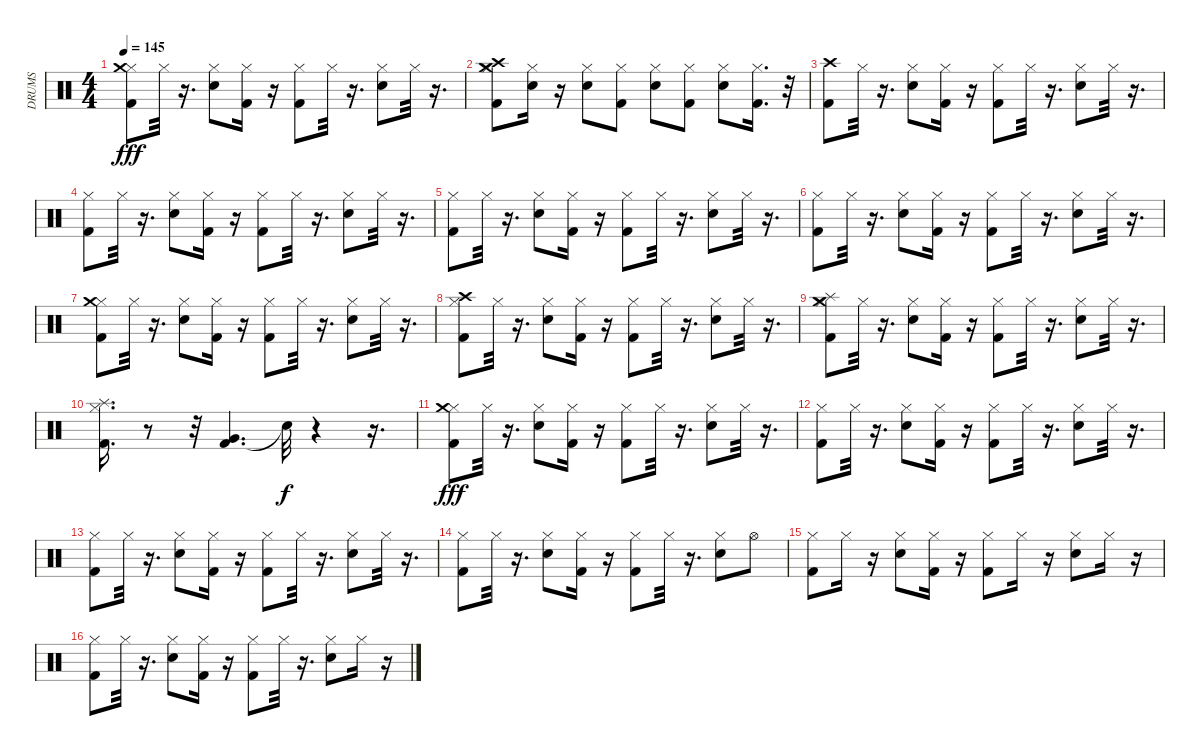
\track ("DRUMS" "DRUMS") {instrument percussion}
\staff {score}
\articulation defaults
\ts (4 4)
\tempo 145
\clef neutral
\ks c
("Kick (hit) 2" "Hi-Hat (closed)" "Crash medium (hit)").8{dy fff} "Hi-Hat (closed)".32 r.16{d} ("Electric Snare (hit)" "Hi-Hat (closed)").8 ("Kick (hit) 2" "Hi-Hat (closed)").16 r.16 ("Kick (hit) 2" "Hi-Hat (closed)").8 "Hi-Hat (closed)".32 r.16{d} ("Electric Snare (hit)" "Hi-Hat (closed)").8 "Hi-Hat (closed)".32 r.16{d} |
("Kick (hit) 2" "Hi-Hat (closed)" "Crash high (hit)" "Crash medium (hit)").8 ("Electric Snare (hit)" "Hi-Hat (closed)").16 r.16 ("Electric Snare (hit)" "Hi-Hat (closed)").8 ("Kick (hit) 2" "Hi-Hat (closed)").8 ("Electric Snare (hit)" "Hi-Hat (closed)").8 ("Kick (hit) 2" "Hi-Hat (closed)").8 ("Electric Snare (hit)" "Hi-Hat (closed)").8 ("Kick (hit) 2" "Hi-Hat (closed)").16{d} r.32 |
("Kick (hit) 2" "Crash high (hit)").8 "Hi-Hat (closed)".32 r.16{d} ("Electric Snare (hit)" "Hi-Hat (closed)").8 ("Kick (hit) 2" "Hi-Hat (closed)").16 r.16 ("Kick (hit) 2" "Hi-Hat (closed)").8 "Hi-Hat (closed)".32 r.16{d} ("Electric Snare (hit)" "Hi-Hat (closed)").8 "Hi-Hat (closed)".32 r.16{d} |
("Kick (hit) 2" "Hi-Hat (closed)").8 "Hi-Hat (closed)".32 r.16{d} ("Electric Snare (hit)" "Hi-Hat (closed)").8 ("Kick (hit) 2" "Hi-Hat (closed)").16 r.16 ("Kick (hit) 2" "Hi-Hat (closed)").8 "Hi-Hat (closed)".32 r.16{d} ("Electric Snare (hit)" "Hi-Hat (closed)").8 "Hi-Hat (closed)".32 r.16{d} |
("Kick (hit) 2" "Hi-Hat (closed)").8 "Hi-Hat (closed)".32 r.16{d} ("Electric Snare (hit)" "Hi-Hat (closed)").8 ("Kick (hit) 2" "Hi-Hat (closed)").16 r.16 ("Kick (hit) 2" "Hi-Hat (closed)").8 "Hi-Hat (closed)".32 r.16{d} ("Electric Snare (hit)" "Hi-Hat (closed)").8 "Hi-Hat (closed)".32 r.16{d} |
("Kick (hit) 2" "Hi-Hat (closed)").8 "Hi-Hat (closed)".32 r.16{d} ("Electric Snare (hit)" "Hi-Hat (closed)").8 ("Kick (hit) 2" "Hi-Hat (closed)").16 r.16 ("Kick (hit) 2" "Hi-Hat (closed)").8 "Hi-Hat (closed)".32 r.16{d} ("Electric Snare (hit)" "Hi-Hat (closed)").8 "Hi-Hat (closed)".32 r.16{d} |
("Kick (hit) 2" "Hi-Hat (closed)" "Crash medium (hit)").8 "Hi-Hat (closed)".32 r.16{d} ("Electric Snare (hit)" "Hi-Hat (closed)").8 ("Kick (hit) 2" "Hi-Hat (closed)").16 r.16 ("Kick (hit) 2" "Hi-Hat (closed)").8 "Hi-Hat (closed)".32 r.16{d} ("Electric Snare (hit)" "Hi-Hat (closed)").8 "Hi-Hat (closed)".32 r.16{d} |
("Kick (hit) 2" "Hi-Hat (closed)" "Crash high (hit)").8 "Hi-Hat (closed)".32 r.16{d} ("Electric Snare (hit)" "Hi-Hat (closed)").8 ("Kick (hit) 2" "Hi-Hat (closed)").16 r.16 ("Kick (hit) 2" "Hi-Hat (closed)").8 "Hi-Hat (closed)".32 r.16{d} ("Electric Snare (hit)" "Hi-Hat (closed)").8 "Hi-Hat (closed)".32 r.16{d} |
("Kick (hit) 2" "Hi-Hat (closed)" "Splash (hit)" "Crash medium (hit)").8 "Hi-Hat (closed)".32 r.16{d} ("Electric Snare (hit)" "Hi-Hat (closed)").8 ("Kick (hit) 2" "Hi-Hat (closed)").16 r.16 ("Kick (hit) 2" "Hi-Hat (closed)").8 "Hi-Hat (closed)".32 r.16{d} ("Electric Snare (hit)" "Hi-Hat (closed)").8 "Hi-Hat (closed)".32 r.16{d} |
("Kick (hit) 2" "Hi-Hat (closed)" "Splash (hit)").16{d} r.8 r.32 ("Kick (hit) 2" "Very Low Tom (hit)").4{d} "Snare (hit)"{t}.32{dy f} r.4 r.16{d} |
("Kick (hit) 2" "Hi-Hat (closed)" "Crash medium (hit)").8{dy fff} "Hi-Hat (closed)".32 r.16{d} ("Electric Snare (hit)" "Hi-Hat (closed)").8 ("Kick (hit) 2" "Hi-Hat (closed)").16 r.16 ("Kick (hit) 2" "Hi-Hat (closed)").8 "Hi-Hat (closed)".32 r.16{d} ("Electric Snare (hit)" "Hi-Hat (closed)").8 "Hi-Hat (closed)".32 r.16{d} |
("Kick (hit) 2" "Hi-Hat (closed)").8 "Hi-Hat (closed)".32 r.16{d} ("Electric Snare (hit)" "Hi-Hat (closed)").8 ("Kick (hit) 2" "Hi-Hat (closed)").16 r.16 ("Kick (hit) 2" "Hi-Hat (closed)").8 "Hi-Hat (closed)".32 r.16{d} ("Electric Snare (hit)" "Hi-Hat (closed)").8 "Hi-Hat (closed)".32 r.16{d} |
("Kick (hit) 2" "Hi-Hat (closed)").8 "Hi-Hat (closed)".32 r.16{d} ("Electric Snare (hit)" "Hi-Hat (closed)").8 ("Kick (hit) 2" "Hi-Hat (closed)").16 r.16 ("Kick (hit) 2" "Hi-Hat (closed)").8 "Hi-Hat (closed)".32 r.16{d} ("Electric Snare (hit)" "Hi-Hat (closed)").8 "Hi-Hat (closed)".32 r.16{d} |
("Kick (hit) 2" "Hi-Hat (closed)").8 "Hi-Hat (closed)".32 r.16{d} ("Electric Snare (hit)" "Hi-Hat (closed)").8 ("Kick (hit) 2" "Hi-Hat (closed)").16 r.16 ("Kick (hit) 2" "Hi-Hat (closed)").8 "Hi-Hat (closed)".32 r.16{d} ("Electric Snare (hit)" "Hi-Hat (closed)").8 "Hi-Hat (open)".8 |
("Kick (hit) 2" "Hi-Hat (closed)").8 "Hi-Hat (closed)".16 r.16 ("Electric Snare (hit)" "Hi-Hat (closed)").8 ("Kick (hit) 2" "Hi-Hat (closed)").16 r.16 ("Kick (hit) 2" "Hi-Hat (closed)").8 "Hi-Hat (closed)".16 r.16 ("Electric Snare (hit)" "Hi-Hat (closed)").8 "Hi-Hat (closed)".16 r.16 |
("Kick (hit) 2" "Hi-Hat (closed)").8 "Hi-Hat (closed)".32 r.16{d} ("Electric Snare (hit)" "Hi-Hat (closed)").8 ("Kick (hit) 2" "Hi-Hat (closed)").16 r.16 ("Kick (hit) 2" "Hi-Hat (closed)").8 "Hi-Hat (closed)".32 r.16{d} ("Electric Snare (hit)" "Hi-Hat (closed)").8 "Hi-Hat (closed)".16 r.16
